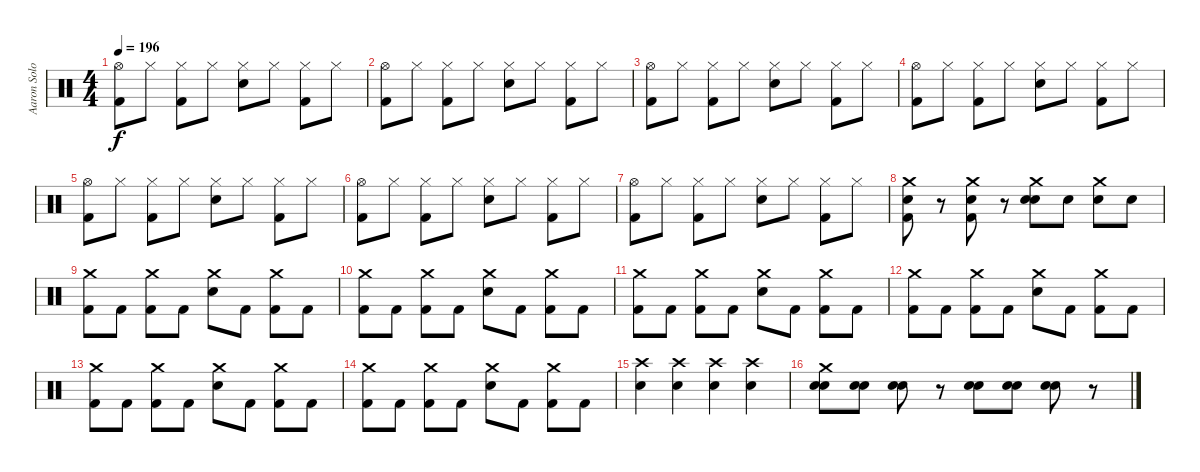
\track ("Aaron Solowoniuk" "Aaron Solo") {instrument percussion}
\staff {score}
\articulation defaults
\ts (4 4)
\tempo 196
\clef neutral
\ks c
("Hi-Hat (open)" "Kick (hit) 2").8{dy f} "Hi-Hat (closed)".8 ("Hi-Hat (closed)" "Kick (hit) 2").8 "Hi-Hat (closed)".8 ("Hi-Hat (closed)" "Electric Snare (hit)").8 "Hi-Hat (closed)".8 ("Hi-Hat (closed)" "Kick (hit) 2").8 "Hi-Hat (closed)".8 |
("Hi-Hat (open)" "Kick (hit) 2").8 "Hi-Hat (closed)".8 ("Hi-Hat (closed)" "Kick (hit) 2").8 "Hi-Hat (closed)".8 ("Hi-Hat (closed)" "Electric Snare (hit)").8 "Hi-Hat (closed)".8 ("Hi-Hat (closed)" "Kick (hit) 2").8 "Hi-Hat (closed)".8 |
("Hi-Hat (open)" "Kick (hit) 2").8 "Hi-Hat (closed)".8 ("Hi-Hat (closed)" "Kick (hit) 2").8 "Hi-Hat (closed)".8 ("Hi-Hat (closed)" "Electric Snare (hit)").8 "Hi-Hat (closed)".8 ("Hi-Hat (closed)" "Kick (hit) 2").8 "Hi-Hat (closed)".8 |
("Hi-Hat (open)" "Kick (hit) 2").8 "Hi-Hat (closed)".8 ("Hi-Hat (closed)" "Kick (hit) 2").8 "Hi-Hat (closed)".8 ("Hi-Hat (closed)" "Electric Snare (hit)").8 "Hi-Hat (closed)".8 ("Hi-Hat (closed)" "Kick (hit) 2").8 "Hi-Hat (closed)".8 |
("Hi-Hat (open)" "Kick (hit) 2").8 "Hi-Hat (closed)".8 ("Hi-Hat (closed)" "Kick (hit) 2").8 "Hi-Hat (closed)".8 ("Hi-Hat (closed)" "Electric Snare (hit)").8 "Hi-Hat (closed)".8 ("Hi-Hat (closed)" "Kick (hit) 2").8 "Hi-Hat (closed)".8 |
("Hi-Hat (open)" "Kick (hit) 2").8 "Hi-Hat (closed)".8 ("Hi-Hat (closed)" "Kick (hit) 2").8 "Hi-Hat (closed)".8 ("Hi-Hat (closed)" "Electric Snare (hit)").8 "Hi-Hat (closed)".8 ("Hi-Hat (closed)" "Kick (hit) 2").8 "Hi-Hat (closed)".8 |
("Hi-Hat (open)" "Kick (hit) 2").8 "Hi-Hat (closed)".8 ("Hi-Hat (closed)" "Kick (hit) 2").8 "Hi-Hat (closed)".8 ("Hi-Hat (closed)" "Electric Snare (hit)").8 "Hi-Hat (closed)".8 ("Hi-Hat (closed)" "Kick (hit) 2").8 "Hi-Hat (closed)".8 |
("Crash medium (hit)" "Kick (hit) 2" "Electric Snare (hit)").8 r.8 ("Crash medium (hit)" "Kick (hit) 2" "Electric Snare (hit)").8 r.8 ("Crash medium (hit)" "Electric Snare (hit)" "Electric Snare (hit)").8 "Electric Snare (hit)".8 ("Crash medium (hit)" "Electric Snare (hit)").8 "Electric Snare (hit)".8 |
("Crash medium (hit)" "Kick (hit) 2").8 "Kick (hit) 2".8 ("Crash medium (hit)" "Kick (hit) 2").8 "Kick (hit) 2".8 ("Crash medium (hit)" "Electric Snare (hit)").8 "Kick (hit) 2".8 ("Crash medium (hit)" "Kick (hit) 2").8 "Kick (hit) 2".8 |
("Crash medium (hit)" "Kick (hit) 2").8 "Kick (hit) 2".8 ("Crash medium (hit)" "Kick (hit) 2").8 "Kick (hit) 2".8 ("Crash medium (hit)" "Electric Snare (hit)").8 "Kick (hit) 2".8 ("Crash medium (hit)" "Kick (hit) 2").8 "Kick (hit) 2".8 |
("Crash medium (hit)" "Kick (hit) 2").8 "Kick (hit) 2".8 ("Crash medium (hit)" "Kick (hit) 2").8 "Kick (hit) 2".8 ("Crash medium (hit)" "Electric Snare (hit)").8 "Kick (hit) 2".8 ("Crash medium (hit)" "Kick (hit) 2").8 "Kick (hit) 2".8 |
("Crash medium (hit)" "Kick (hit) 2").8 "Kick (hit) 2".8 ("Crash medium (hit)" "Kick (hit) 2").8 "Kick (hit) 2".8 ("Crash medium (hit)" "Electric Snare (hit)").8 "Kick (hit) 2".8 ("Crash medium (hit)" "Kick (hit) 2").8 "Kick (hit) 2".8 |
("Crash medium (hit)" "Kick (hit) 2").8 "Kick (hit) 2".8 ("Crash medium (hit)" "Kick (hit) 2").8 "Kick (hit) 2".8 ("Crash medium (hit)" "Electric Snare (hit)").8 "Kick (hit) 2".8 ("Crash medium (hit)" "Kick (hit) 2").8 "Kick (hit) 2".8 |
("Crash medium (hit)" "Kick (hit) 2").8 "Kick (hit) 2".8 ("Crash medium (hit)" "Kick (hit) 2").8 "Kick (hit) 2".8 ("Crash medium (hit)" "Electric Snare (hit)").8 "Kick (hit) 2".8 ("Crash medium (hit)" "Kick (hit) 2").8 "Kick (hit) 2".8 |
("Crash high (hit)" "Electric Snare (hit)").4 ("Crash high (hit)" "Electric Snare (hit)").4 ("Crash high (hit)" "Electric Snare (hit)").4 ("Crash high (hit)" "Electric Snare (hit)").4 |
("Crash medium (hit)" "Electric Snare (hit)" "Electric Snare (hit)").8 ("Electric Snare (hit)" "Electric Snare (hit)").8 ("Electric Snare (hit)" "Electric Snare (hit)").8 r.8 ("Electric Snare (hit)" "Electric Snare (hit)").8 ("Electric Snare (hit)" "Electric Snare (hit)").8 ("Electric Snare (hit)" "Electric Snare (hit)").8 r.8
